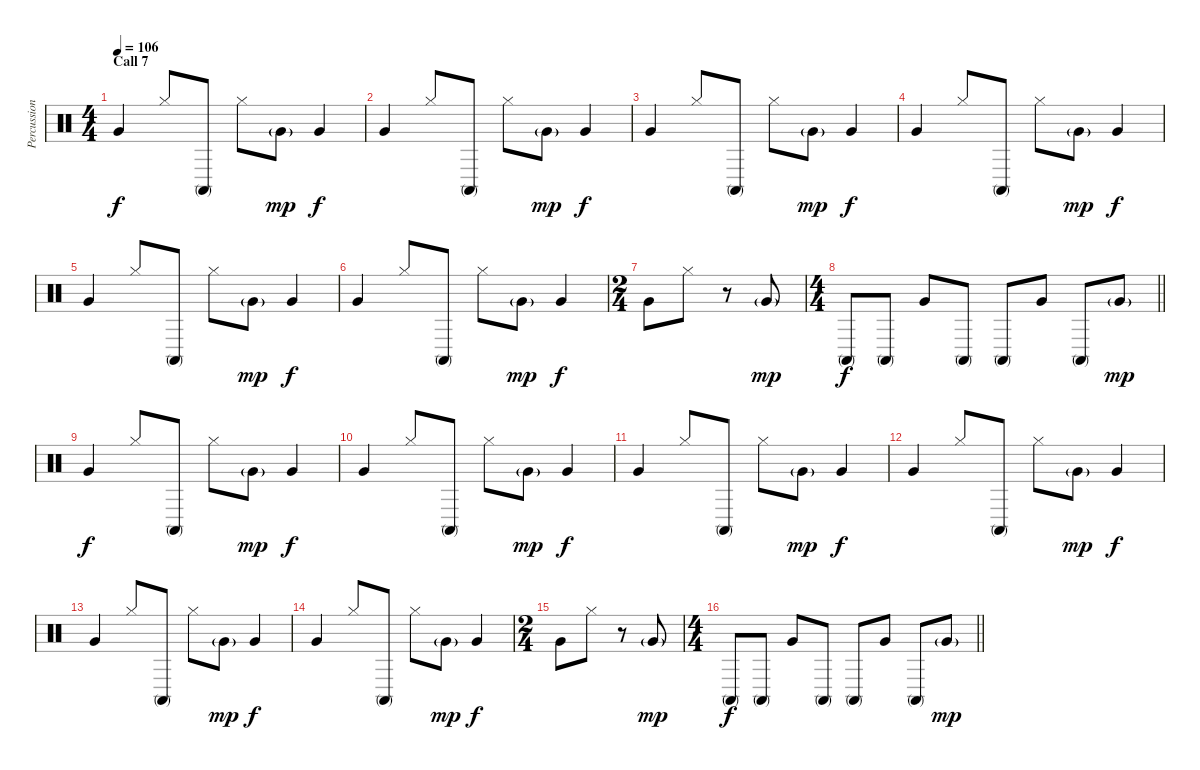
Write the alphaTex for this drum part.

\track ("Percussion" "Percussion") {instrument percussion}
\staff {score}
\articulation defaults
\ts (4 4)
\section ("" "Call 7")
\tempo 106
\clef neutral
\ks c "Very Low Tom (hit)".4{dy f} "Hi-Hat (closed)".8 "Conga high (mute)".8 "Hi-Hat (closed)".8 "Very Low Tom (hit)"{g}.8{dy mp} "Very Low Tom (hit)".4{dy f}
|
"Very Low Tom (hit)".4 "Hi-Hat (closed)".8 "Conga high (mute)".8 "Hi-Hat (closed)".8 "Very Low Tom (hit)"{g}.8{dy mp} "Very Low Tom (hit)".4{dy f} |
"Very Low Tom (hit)".4 "Hi-Hat (closed)".8 "Conga high (mute)".8 "Hi-Hat (closed)".8 "Very Low Tom (hit)"{g}.8{dy mp} "Very Low Tom (hit)".4{dy f} |
"Very Low Tom (hit)".4 "Hi-Hat (closed)".8 "Conga high (mute)".8 "Hi-Hat (closed)".8 "Very Low Tom (hit)"{g}.8{dy mp} "Very Low Tom (hit)".4{dy f} |
"Very Low Tom (hit)".4 "Hi-Hat (closed)".8 "Conga high (mute)".8 "Hi-Hat (closed)".8 "Very Low Tom (hit)"{g}.8{dy mp} "Very Low Tom (hit)".4{dy f} |
"Very Low Tom (hit)".4 "Hi-Hat (closed)".8 "Conga high (mute)".8 "Hi-Hat (closed)".8 "Very Low Tom (hit)"{g}.8{dy mp} "Very Low Tom (hit)".4{dy f} |
\ts (2 4)
"Very Low Tom (hit)".8 "Hi-Hat (closed)".8 r.8 "Very Low Tom (hit)"{g}.8{dy mp} |
\ts (4 4)
\barLineRight lightlight "Conga high (mute)".8{dy f} "Conga high (mute)".8 "Very Low Tom (hit)".8 "Conga high (mute)".8 "Conga high (mute)".8 "Very Low Tom (hit)".8 "Conga high (mute)".8 "Very Low Tom (hit)"{g}.8{dy mp}
|
"Very Low Tom (hit)".4{dy f} "Hi-Hat (closed)".8 "Conga high (mute)".8 "Hi-Hat (closed)".8 "Very Low Tom (hit)"{g}.8{dy mp} "Very Low Tom (hit)".4{dy f} |
"Very Low Tom (hit)".4 "Hi-Hat (closed)".8 "Conga high (mute)".8 "Hi-Hat (closed)".8 "Very Low Tom (hit)"{g}.8{dy mp} "Very Low Tom (hit)".4{dy f} |
"Very Low Tom (hit)".4 "Hi-Hat (closed)".8 "Conga high (mute)".8 "Hi-Hat (closed)".8 "Very Low Tom (hit)"{g}.8{dy mp} "Very Low Tom (hit)".4{dy f} |
"Very Low Tom (hit)".4 "Hi-Hat (closed)".8 "Conga high (mute)".8 "Hi-Hat (closed)".8 "Very Low Tom (hit)"{g}.8{dy mp} "Very Low Tom (hit)".4{dy f} |
"Very Low Tom (hit)".4 "Hi-Hat (closed)".8 "Conga high (mute)".8 "Hi-Hat (closed)".8 "Very Low Tom (hit)"{g}.8{dy mp} "Very Low Tom (hit)".4{dy f} |
"Very Low Tom (hit)".4 "Hi-Hat (closed)".8 "Conga high (mute)".8 "Hi-Hat (closed)".8 "Very Low Tom (hit)"{g}.8{dy mp} "Very Low Tom (hit)".4{dy f} |
\ts (2 4)
"Very Low Tom (hit)".8 "Hi-Hat (closed)".8 r.8 "Very Low Tom (hit)"{g}.8{dy mp} |
\ts (4 4)
\barLineRight lightlight "Conga high (mute)".8{dy f} "Conga high (mute)".8 "Very Low Tom (hit)".8 "Conga high (mute)".8 "Conga high (mute)".8 "Very Low Tom (hit)".8 "Conga high (mute)".8 "Very Low Tom (hit)"{g}.8{dy mp}
